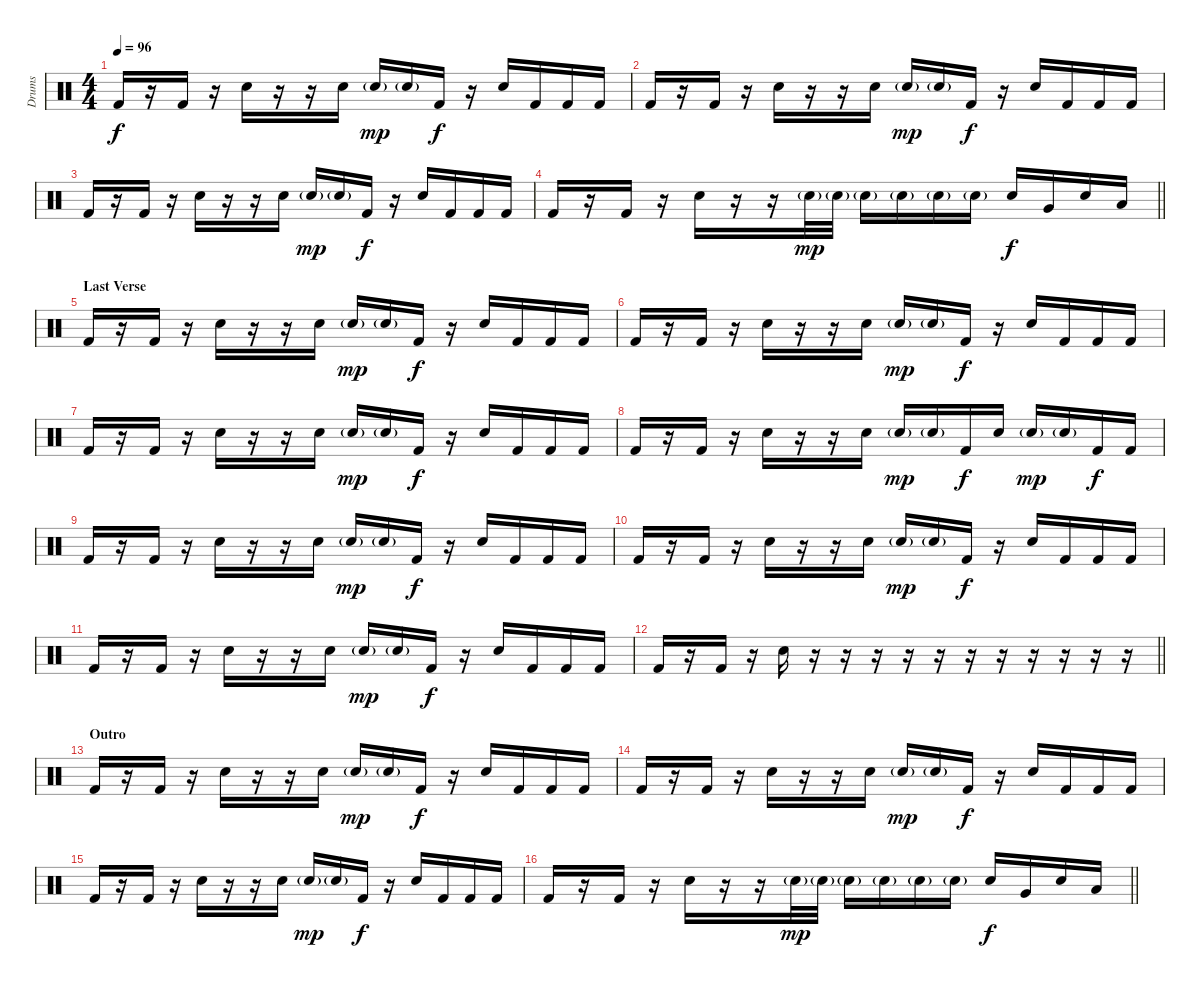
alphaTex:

\track ("Drums" "Drums") {instrument percussion}
\staff {score}
\articulation defaults
\ts (4 4)
\tempo 96
\clef neutral
\ks c "Kick (hit) 2".16{dy f}
r.16 "Kick (hit) 2".16 r.16 "Snare (hit) 2".16 r.16 r.16 "Snare (hit) 2".16 "Snare (hit) 2"{g}.16{dy mp} "Snare (hit) 2"{g}.16 "Kick (hit) 2".16{dy f} r.16 "Snare (hit) 2".16 "Kick (hit) 2".16 "Kick (hit) 2".16 "Kick (hit) 2".16 |
"Kick (hit) 2".16 r.16 "Kick (hit) 2".16 r.16 "Snare (hit) 2".16 r.16 r.16 "Snare (hit) 2".16 "Snare (hit) 2"{g}.16{dy mp} "Snare (hit) 2"{g}.16 "Kick (hit) 2".16{dy f} r.16 "Snare (hit) 2".16 "Kick (hit) 2".16 "Kick (hit) 2".16 "Kick (hit) 2".16 |
"Kick (hit) 2".16 r.16 "Kick (hit) 2".16 r.16 "Snare (hit) 2".16 r.16 r.16 "Snare (hit) 2".16 "Snare (hit) 2"{g}.16{dy mp} "Snare (hit) 2"{g}.16 "Kick (hit) 2".16{dy f} r.16 "Snare (hit) 2".16 "Kick (hit) 2".16 "Kick (hit) 2".16 "Kick (hit) 2".16 |
\barLineRight lightlight "Kick (hit) 2".16
r.16 "Kick (hit) 2".16 r.16 "Snare (hit) 2".16 r.16 r.16 "Snare (hit) 2"{g}.32{dy mp} "Snare (hit) 2"{g}.32 "Snare (hit) 2"{g}.16 "Snare (hit) 2"{g}.16 "Snare (hit) 2"{g}.16 "Snare (hit) 2"{g}.16 "Snare (hit) 2".16{dy f} "Very Low Tom (hit)".16 "Snare (hit) 2".16 "Low Tom (hit)".16 |
\section ("" "Last Verse")
"Kick (hit) 2".16 r.16 "Kick (hit) 2".16 r.16 "Snare (hit) 2".16 r.16 r.16 "Snare (hit) 2".16 "Snare (hit) 2"{g}.16{dy mp} "Snare (hit) 2"{g}.16 "Kick (hit) 2".16{dy f} r.16 "Snare (hit) 2".16 "Kick (hit) 2".16 "Kick (hit) 2".16 "Kick (hit) 2".16 |
"Kick (hit) 2".16 r.16 "Kick (hit) 2".16 r.16 "Snare (hit) 2".16 r.16 r.16 "Snare (hit) 2".16 "Snare (hit) 2"{g}.16{dy mp} "Snare (hit) 2"{g}.16 "Kick (hit) 2".16{dy f} r.16 "Snare (hit) 2".16 "Kick (hit) 2".16 "Kick (hit) 2".16 "Kick (hit) 2".16 |
"Kick (hit) 2".16 r.16 "Kick (hit) 2".16 r.16 "Snare (hit) 2".16 r.16 r.16 "Snare (hit) 2".16 "Snare (hit) 2"{g}.16{dy mp} "Snare (hit) 2"{g}.16 "Kick (hit) 2".16{dy f} r.16 "Snare (hit) 2".16 "Kick (hit) 2".16 "Kick (hit) 2".16 "Kick (hit) 2".16 |
"Kick (hit) 2".16 r.16 "Kick (hit) 2".16 r.16 "Snare (hit) 2".16 r.16 r.16 "Snare (hit) 2".16 "Snare (hit) 2"{g}.16{dy mp} "Snare (hit) 2"{g}.16 "Kick (hit) 2".16{dy f} "Snare (hit) 2".16 "Snare (hit) 2"{g}.16{dy mp} "Snare (hit) 2"{g}.16 "Kick (hit) 2".16{dy f} "Kick (hit) 2".16 |
"Kick (hit) 2".16 r.16 "Kick (hit) 2".16 r.16 "Snare (hit) 2".16 r.16 r.16 "Snare (hit) 2".16 "Snare (hit) 2"{g}.16{dy mp} "Snare (hit) 2"{g}.16 "Kick (hit) 2".16{dy f} r.16 "Snare (hit) 2".16 "Kick (hit) 2".16 "Kick (hit) 2".16 "Kick (hit) 2".16 |
"Kick (hit) 2".16 r.16 "Kick (hit) 2".16 r.16 "Snare (hit) 2".16 r.16 r.16 "Snare (hit) 2".16 "Snare (hit) 2"{g}.16{dy mp} "Snare (hit) 2"{g}.16 "Kick (hit) 2".16{dy f} r.16 "Snare (hit) 2".16 "Kick (hit) 2".16 "Kick (hit) 2".16 "Kick (hit) 2".16 |
"Kick (hit) 2".16 r.16 "Kick (hit) 2".16 r.16 "Snare (hit) 2".16 r.16 r.16 "Snare (hit) 2".16 "Snare (hit) 2"{g}.16{dy mp} "Snare (hit) 2"{g}.16 "Kick (hit) 2".16{dy f} r.16 "Snare (hit) 2".16 "Kick (hit) 2".16 "Kick (hit) 2".16 "Kick (hit) 2".16 |
\barLineRight lightlight "Kick (hit) 2".16
r.16 "Kick (hit) 2".16 r.16 "Snare (hit) 2".16 r.16 r.16 r.16 r.16 r.16 r.16 r.16 r.16 r.16 r.16 r.16 |
\section ("" "Outro")
"Kick (hit) 2".16 r.16 "Kick (hit) 2".16 r.16 "Snare (hit) 2".16 r.16 r.16 "Snare (hit) 2".16 "Snare (hit) 2"{g}.16{dy mp} "Snare (hit) 2"{g}.16 "Kick (hit) 2".16{dy f} r.16 "Snare (hit) 2".16 "Kick (hit) 2".16 "Kick (hit) 2".16 "Kick (hit) 2".16 |
"Kick (hit) 2".16 r.16 "Kick (hit) 2".16 r.16 "Snare (hit) 2".16 r.16 r.16 "Snare (hit) 2".16 "Snare (hit) 2"{g}.16{dy mp} "Snare (hit) 2"{g}.16 "Kick (hit) 2".16{dy f} r.16 "Snare (hit) 2".16 "Kick (hit) 2".16 "Kick (hit) 2".16 "Kick (hit) 2".16 |
"Kick (hit) 2".16 r.16 "Kick (hit) 2".16 r.16 "Snare (hit) 2".16 r.16 r.16 "Snare (hit) 2".16 "Snare (hit) 2"{g}.16{dy mp} "Snare (hit) 2"{g}.16 "Kick (hit) 2".16{dy f} r.16 "Snare (hit) 2".16 "Kick (hit) 2".16 "Kick (hit) 2".16 "Kick (hit) 2".16 |
\barLineRight lightlight "Kick (hit) 2".16
r.16 "Kick (hit) 2".16 r.16 "Snare (hit) 2".16 r.16 r.16 "Snare (hit) 2"{g}.32{dy mp} "Snare (hit) 2"{g}.32 "Snare (hit) 2"{g}.16 "Snare (hit) 2"{g}.16 "Snare (hit) 2"{g}.16 "Snare (hit) 2"{g}.16 "Snare (hit) 2".16{dy f} "Very Low Tom (hit)".16 "Snare (hit) 2".16 "Low Tom (hit)".16
